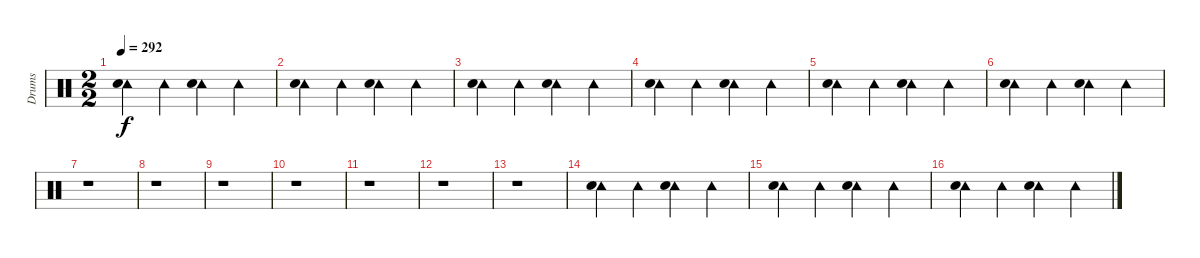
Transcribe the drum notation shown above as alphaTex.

\track ("Drums" "Drums") {instrument percussion}
\staff {score}
\articulation defaults
\ts (2 2)
\tempo 292
\clef neutral
\ks c
("Tambourine (hit)" "Electric Snare (hit)").4{dy f} "Tambourine (hit)".4 ("Tambourine (hit)" "Electric Snare (hit)").4 "Tambourine (hit)".4 |
("Tambourine (hit)" "Electric Snare (hit)").4 "Tambourine (hit)".4 ("Tambourine (hit)" "Electric Snare (hit)").4 "Tambourine (hit)".4 |
("Tambourine (hit)" "Electric Snare (hit)").4 "Tambourine (hit)".4 ("Tambourine (hit)" "Electric Snare (hit)").4 "Tambourine (hit)".4 |
("Tambourine (hit)" "Electric Snare (hit)").4 "Tambourine (hit)".4 ("Tambourine (hit)" "Electric Snare (hit)").4 "Tambourine (hit)".4 |
("Tambourine (hit)" "Electric Snare (hit)").4 "Tambourine (hit)".4 ("Tambourine (hit)" "Electric Snare (hit)").4 "Tambourine (hit)".4 |
("Tambourine (hit)" "Electric Snare (hit)").4 "Tambourine (hit)".4 ("Tambourine (hit)" "Electric Snare (hit)").4 "Tambourine (hit)".4 |
r.1 |
r.1 |
r.1 |
r.1 |
r.1 |
r.1 |
r.1 |
("Tambourine (hit)" "Electric Snare (hit)").4 "Tambourine (hit)".4 ("Tambourine (hit)" "Electric Snare (hit)").4 "Tambourine (hit)".4 |
("Tambourine (hit)" "Electric Snare (hit)").4 "Tambourine (hit)".4 ("Tambourine (hit)" "Electric Snare (hit)").4 "Tambourine (hit)".4 |
("Tambourine (hit)" "Electric Snare (hit)").4 "Tambourine (hit)".4 ("Tambourine (hit)" "Electric Snare (hit)").4 "Tambourine (hit)".4
